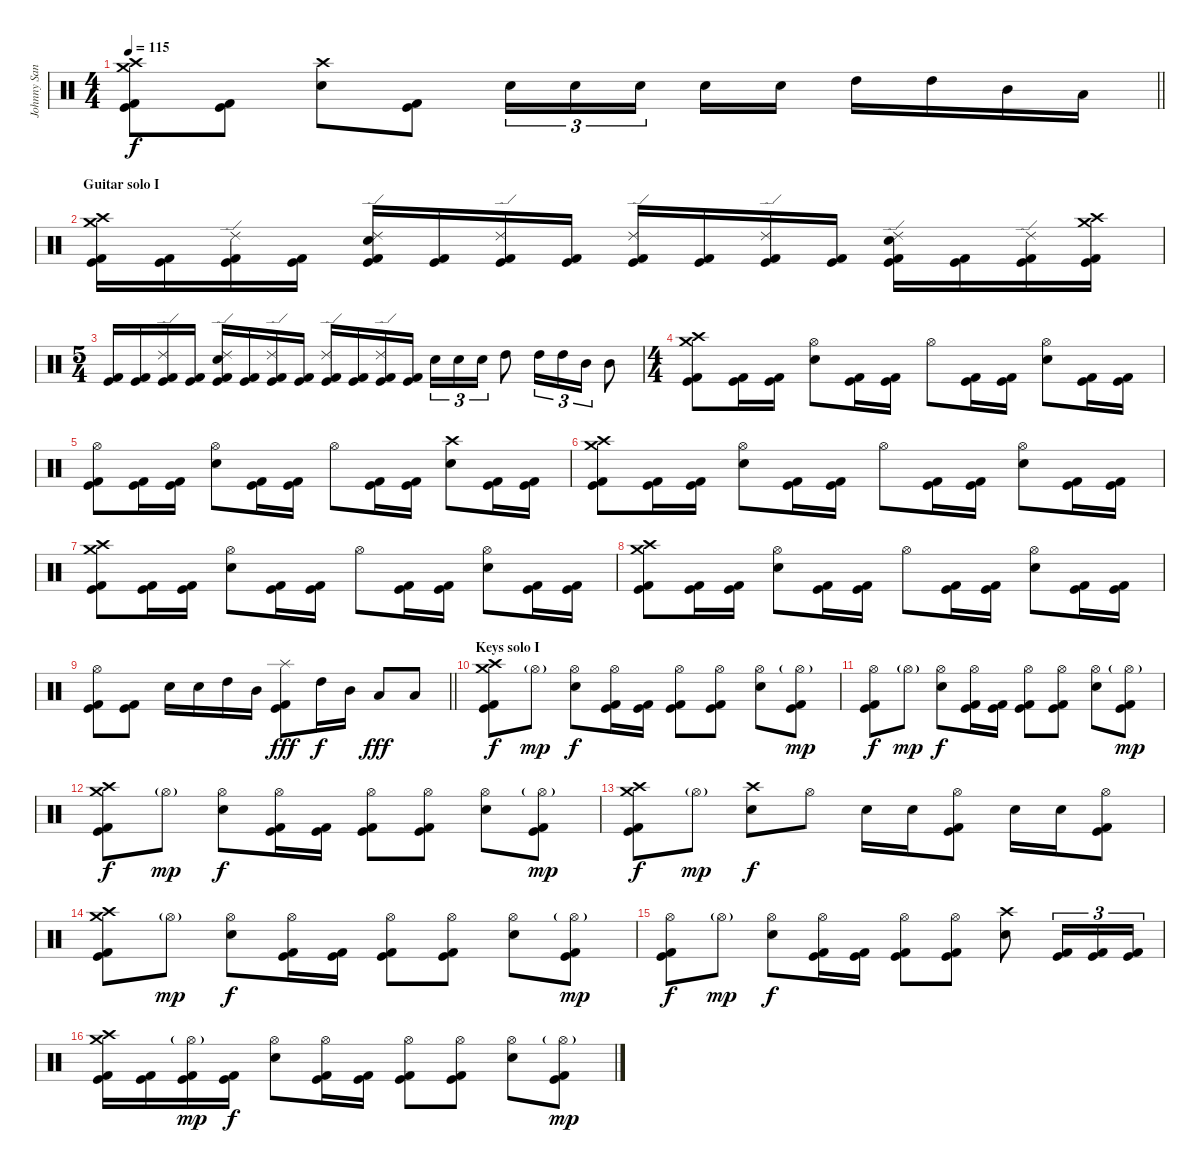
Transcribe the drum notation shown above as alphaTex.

\track ("Johnny Sandin" "Johnny San") {instrument percussion}
\staff {score}
\articulation defaults
\ts (4 4)
\tempo 115
\clef neutral
\barLineRight lightlight
\ks c
("Crash medium (hit)" "Crash high (hit)" "Kick (hit) 2" "Kick (hit)").8{dy f} ("Kick (hit) 2" "Kick (hit)").8 ("Crash high (hit)" "Snare (hit) 2").8 ("Kick (hit) 2" "Kick (hit)").8 "Snare (hit) 2".16{tu (3 2)} "Snare (hit) 2".16{tu (3 2)} "Snare (hit) 2".16{tu (3 2)} "Snare (hit) 2".16 "Snare (hit) 2".16 "High Tom (hit)".16 "High Tom (hit)".16 "Mid Tom (hit)".16 "Low Tom (hit)".16 |
\section ("" "Guitar solo I")
("Crash medium (hit)" "Crash high (hit)" "Kick (hit) 2" "Kick (hit)").16 ("Kick (hit) 2" "Kick (hit)").16 ("Ride (edge) 2" "Kick (hit) 2" "Kick (hit)").16 ("Kick (hit) 2" "Kick (hit)").16 ("Ride (edge) 2" "Snare (hit) 2" "Kick (hit) 2" "Kick (hit)").16 ("Kick (hit) 2" "Kick (hit)").16 ("Ride (edge) 2" "Kick (hit) 2" "Kick (hit)").16 ("Kick (hit) 2" "Kick (hit)").16 ("Ride (edge) 2" "Kick (hit) 2" "Kick (hit)").16 ("Kick (hit) 2" "Kick (hit)").16 ("Ride (edge) 2" "Kick (hit) 2" "Kick (hit)").16 ("Kick (hit) 2" "Kick (hit)").16 ("Ride (edge) 2" "Snare (hit) 2" "Kick (hit) 2" "Kick (hit)").16 ("Kick (hit) 2" "Kick (hit)").16 ("Ride (edge) 2" "Kick (hit) 2" "Kick (hit)").16 ("Crash medium (hit)" "Crash high (hit)" "Kick (hit) 2" "Kick (hit)").16 |
\ts (5 4)
("Kick (hit) 2" "Kick (hit)").16 ("Kick (hit) 2" "Kick (hit)").16 ("Ride (edge) 2" "Kick (hit) 2" "Kick (hit)").16 ("Kick (hit) 2" "Kick (hit)").16 ("Ride (edge) 2" "Snare (hit) 2" "Kick (hit) 2" "Kick (hit)").16 ("Kick (hit) 2" "Kick (hit)").16 ("Ride (edge) 2" "Kick (hit) 2" "Kick (hit)").16 ("Kick (hit) 2" "Kick (hit)").16 ("Ride (edge) 2" "Kick (hit) 2" "Kick (hit)").16 ("Kick (hit) 2" "Kick (hit)").16 ("Ride (edge) 2" "Kick (hit) 2" "Kick (hit)").16 ("Kick (hit) 2" "Kick (hit)").16 "Snare (hit) 2".16{tu (3 2)} "Snare (hit) 2".16{tu (3 2)} "Snare (hit) 2".16{tu (3 2)} "High Tom (hit)".8 "High Tom (hit)".16{tu (3 2)} "High Tom (hit)".16{tu (3 2)} "Mid Tom (hit)".16{tu (3 2)} "Mid Tom (hit)".8 |
\ts (4 4)
("Crash medium (hit)" "Crash high (hit)" "Kick (hit) 2" "Kick (hit)").8 ("Kick (hit) 2" "Kick (hit)").16 ("Kick (hit) 2" "Kick (hit)").16 ("Hi-Hat (open)" "Snare (hit) 2").8 ("Kick (hit) 2" "Kick (hit)").16 ("Kick (hit) 2" "Kick (hit)").16 "Hi-Hat (open)".8 ("Kick (hit) 2" "Kick (hit)").16 ("Kick (hit) 2" "Kick (hit)").16 ("Hi-Hat (open)" "Snare (hit) 2").8 ("Kick (hit) 2" "Kick (hit)").16 ("Kick (hit) 2" "Kick (hit)").16 |
("Hi-Hat (open)" "Kick (hit) 2" "Kick (hit)").8 ("Kick (hit) 2" "Kick (hit)").16 ("Kick (hit) 2" "Kick (hit)").16 ("Hi-Hat (open)" "Snare (hit) 2").8 ("Kick (hit) 2" "Kick (hit)").16 ("Kick (hit) 2" "Kick (hit)").16 "Hi-Hat (open)".8 ("Kick (hit) 2" "Kick (hit)").16 ("Kick (hit) 2" "Kick (hit)").16 ("Crash high (hit)" "Snare (hit) 2").8 ("Kick (hit) 2" "Kick (hit)").16 ("Kick (hit) 2" "Kick (hit)").16 |
("Crash medium (hit)" "Crash high (hit)" "Kick (hit) 2" "Kick (hit)").8 ("Kick (hit) 2" "Kick (hit)").16 ("Kick (hit) 2" "Kick (hit)").16 ("Hi-Hat (open)" "Snare (hit) 2").8 ("Kick (hit) 2" "Kick (hit)").16 ("Kick (hit) 2" "Kick (hit)").16 "Hi-Hat (open)".8 ("Kick (hit) 2" "Kick (hit)").16 ("Kick (hit) 2" "Kick (hit)").16 ("Hi-Hat (open)" "Snare (hit) 2").8 ("Kick (hit) 2" "Kick (hit)").16 ("Kick (hit) 2" "Kick (hit)").16 |
("Crash medium (hit)" "Crash high (hit)" "Kick (hit) 2" "Kick (hit)").8 ("Kick (hit) 2" "Kick (hit)").16 ("Kick (hit) 2" "Kick (hit)").16 ("Hi-Hat (open)" "Snare (hit) 2").8 ("Kick (hit) 2" "Kick (hit)").16 ("Kick (hit) 2" "Kick (hit)").16 "Hi-Hat (open)".8 ("Kick (hit) 2" "Kick (hit)").16 ("Kick (hit) 2" "Kick (hit)").16 ("Hi-Hat (open)" "Snare (hit) 2").8 ("Kick (hit) 2" "Kick (hit)").16 ("Kick (hit) 2" "Kick (hit)").16 |
("Crash medium (hit)" "Crash high (hit)" "Kick (hit) 2" "Kick (hit)").8 ("Kick (hit) 2" "Kick (hit)").16 ("Kick (hit) 2" "Kick (hit)").16 ("Hi-Hat (open)" "Snare (hit) 2").8 ("Kick (hit) 2" "Kick (hit)").16 ("Kick (hit) 2" "Kick (hit)").16 "Hi-Hat (open)".8 ("Kick (hit) 2" "Kick (hit)").16 ("Kick (hit) 2" "Kick (hit)").16 ("Hi-Hat (open)" "Snare (hit) 2").8 ("Kick (hit) 2" "Kick (hit)").16 ("Kick (hit) 2" "Kick (hit)").16 |
\barLineRight lightlight
("Hi-Hat (open)" "Kick (hit) 2" "Kick (hit)").8 ("Kick (hit) 2" "Kick (hit)").8 "Snare (hit) 2".16 "Snare (hit) 2".16 "High Tom (hit)".16 "Mid Tom (hit)".16 ("Splash (hit)" "Kick (hit) 2" "Kick (hit)").8{dy fff} "High Tom (hit)".16{dy f} "Mid Tom (hit)".16 "Low Tom (hit)".8{dy fff} "Low Tom (hit)".8 |
\section ("" "Keys solo I")
("Crash medium (hit)" "Crash high (hit)" "Kick (hit) 2" "Kick (hit)").8{dy f} "Hi-Hat (open)"{g}.8{dy mp} ("Hi-Hat (open)" "Snare (hit) 2").8{dy f} ("Hi-Hat (open)" "Kick (hit) 2" "Kick (hit)").16 ("Kick (hit) 2" "Kick (hit)").16 ("Hi-Hat (open)" "Kick (hit) 2" "Kick (hit)").8 ("Hi-Hat (open)" "Kick (hit) 2" "Kick (hit)").8 ("Hi-Hat (open)" "Snare (hit) 2").8 ("Hi-Hat (open)"{g} "Kick (hit) 2" "Kick (hit)").8{dy mp} |
("Hi-Hat (open)" "Kick (hit) 2" "Kick (hit)").8{dy f} "Hi-Hat (open)"{g}.8{dy mp} ("Hi-Hat (open)" "Snare (hit) 2").8{dy f} ("Hi-Hat (open)" "Kick (hit) 2" "Kick (hit)").16 ("Kick (hit) 2" "Kick (hit)").16 ("Hi-Hat (open)" "Kick (hit) 2" "Kick (hit)").8 ("Hi-Hat (open)" "Kick (hit) 2" "Kick (hit)").8 ("Hi-Hat (open)" "Snare (hit) 2").8 ("Hi-Hat (open)"{g} "Kick (hit) 2" "Kick (hit)").8{dy mp} |
("Crash medium (hit)" "Crash high (hit)" "Kick (hit) 2" "Kick (hit)").8{dy f} "Hi-Hat (open)"{g}.8{dy mp} ("Hi-Hat (open)" "Snare (hit) 2").8{dy f} ("Hi-Hat (open)" "Kick (hit) 2" "Kick (hit)").16 ("Kick (hit) 2" "Kick (hit)").16 ("Hi-Hat (open)" "Kick (hit) 2" "Kick (hit)").8 ("Hi-Hat (open)" "Kick (hit) 2" "Kick (hit)").8 ("Hi-Hat (open)" "Snare (hit) 2").8 ("Hi-Hat (open)"{g} "Kick (hit) 2" "Kick (hit)").8{dy mp} |
("Crash medium (hit)" "Crash high (hit)" "Kick (hit) 2" "Kick (hit)").8{dy f} "Hi-Hat (open)"{g}.8{dy mp} ("Crash high (hit)" "Snare (hit) 2").8{dy f} "Hi-Hat (open)".8 "Snare (hit) 2".16 "Snare (hit) 2".16 ("Hi-Hat (open)" "Kick (hit) 2" "Kick (hit)").8 "Snare (hit) 2".16 "Snare (hit) 2".16 ("Hi-Hat (open)" "Kick (hit) 2" "Kick (hit)").8 |
("Crash medium (hit)" "Crash high (hit)" "Kick (hit) 2" "Kick (hit)").8 "Hi-Hat (open)"{g}.8{dy mp} ("Hi-Hat (open)" "Snare (hit) 2").8{dy f} ("Hi-Hat (open)" "Kick (hit) 2" "Kick (hit)").16 ("Kick (hit) 2" "Kick (hit)").16 ("Hi-Hat (open)" "Kick (hit) 2" "Kick (hit)").8 ("Hi-Hat (open)" "Kick (hit) 2" "Kick (hit)").8 ("Hi-Hat (open)" "Snare (hit) 2").8 ("Hi-Hat (open)"{g} "Kick (hit) 2" "Kick (hit)").8{dy mp} |
("Hi-Hat (open)" "Kick (hit) 2" "Kick (hit)").8{dy f} "Hi-Hat (open)"{g}.8{dy mp} ("Hi-Hat (open)" "Snare (hit) 2").8{dy f} ("Hi-Hat (open)" "Kick (hit) 2" "Kick (hit)").16 ("Kick (hit) 2" "Kick (hit)").16 ("Hi-Hat (open)" "Kick (hit) 2" "Kick (hit)").8 ("Hi-Hat (open)" "Kick (hit) 2" "Kick (hit)").8 ("Crash high (hit)" "Snare (hit) 2").8 ("Kick (hit) 2" "Kick (hit)").16{tu (3 2)} ("Kick (hit) 2" "Kick (hit)").16{tu (3 2)} ("Kick (hit) 2" "Kick (hit)").16{tu (3 2)} |
("Crash medium (hit)" "Crash high (hit)" "Kick (hit) 2" "Kick (hit)").16 ("Kick (hit) 2" "Kick (hit)").16 ("Hi-Hat (open)"{g} "Kick (hit) 2" "Kick (hit)").16{dy mp} ("Kick (hit) 2" "Kick (hit)").16{dy f} ("Hi-Hat (open)" "Snare (hit) 2").8 ("Hi-Hat (open)" "Kick (hit) 2" "Kick (hit)").16 ("Kick (hit) 2" "Kick (hit)").16 ("Hi-Hat (open)" "Kick (hit) 2" "Kick (hit)").8 ("Hi-Hat (open)" "Kick (hit) 2" "Kick (hit)").8 ("Hi-Hat (open)" "Snare (hit) 2").8 ("Hi-Hat (open)"{g} "Kick (hit) 2" "Kick (hit)").8{dy mp}
